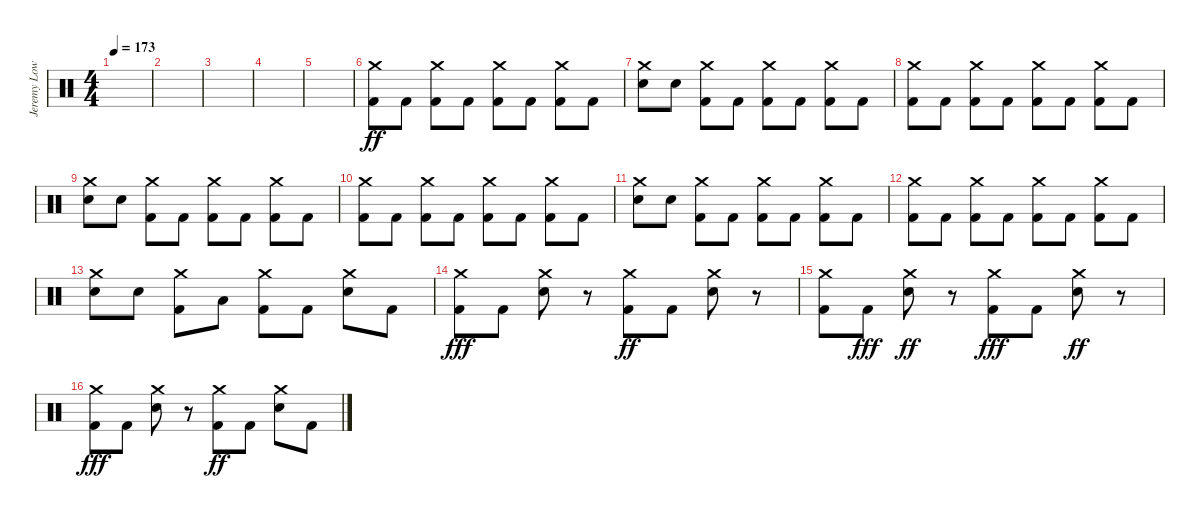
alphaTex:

\track ("Jeremy Lowery" "Jeremy Low") {instrument percussion}
\staff {score}
\articulation defaults
\ts (4 4)
\tempo 173
\clef neutral
\ks c
|
|
|
|
|
("Crash medium (hit)" "Kick (hit) 2").8{dy ff} "Kick (hit) 2".8 ("Crash medium (hit)" "Kick (hit) 2").8 "Kick (hit) 2".8 ("Crash medium (hit)" "Kick (hit) 2").8 "Kick (hit) 2".8 ("Crash medium (hit)" "Kick (hit) 2").8 "Kick (hit) 2".8 |
("Crash medium (hit)" "Electric Snare (hit)").8 "Electric Snare (hit)".8 ("Crash medium (hit)" "Kick (hit) 2").8 "Kick (hit) 2".8 ("Crash medium (hit)" "Kick (hit) 2").8 "Kick (hit) 2".8 ("Crash medium (hit)" "Kick (hit) 2").8 "Kick (hit) 2".8 |
("Crash medium (hit)" "Kick (hit) 2").8 "Kick (hit) 2".8 ("Crash medium (hit)" "Kick (hit) 2").8 "Kick (hit) 2".8 ("Crash medium (hit)" "Kick (hit) 2").8 "Kick (hit) 2".8 ("Crash medium (hit)" "Kick (hit) 2").8 "Kick (hit) 2".8 |
("Crash medium (hit)" "Electric Snare (hit)").8 "Electric Snare (hit)".8 ("Crash medium (hit)" "Kick (hit) 2").8 "Kick (hit) 2".8 ("Crash medium (hit)" "Kick (hit) 2").8 "Kick (hit) 2".8 ("Crash medium (hit)" "Kick (hit) 2").8 "Kick (hit) 2".8 |
("Crash medium (hit)" "Kick (hit) 2").8 "Kick (hit) 2".8 ("Crash medium (hit)" "Kick (hit) 2").8 "Kick (hit) 2".8 ("Crash medium (hit)" "Kick (hit) 2").8 "Kick (hit) 2".8 ("Crash medium (hit)" "Kick (hit) 2").8 "Kick (hit) 2".8 |
("Crash medium (hit)" "Electric Snare (hit)").8 "Electric Snare (hit)".8 ("Crash medium (hit)" "Kick (hit) 2").8 "Kick (hit) 2".8 ("Crash medium (hit)" "Kick (hit) 2").8 "Kick (hit) 2".8 ("Crash medium (hit)" "Kick (hit) 2").8 "Kick (hit) 2".8 |
("Crash medium (hit)" "Kick (hit) 2").8 "Kick (hit) 2".8 ("Crash medium (hit)" "Kick (hit) 2").8 "Kick (hit) 2".8 ("Crash medium (hit)" "Kick (hit) 2").8 "Kick (hit) 2".8 ("Crash medium (hit)" "Kick (hit) 2").8 "Kick (hit) 2".8 |
("Crash medium (hit)" "Electric Snare (hit)").8 "Electric Snare (hit)".8 ("Crash medium (hit)" "Kick (hit) 2").8 "Low Floor Tom (hit)".8 ("Crash medium (hit)" "Kick (hit) 2").8 "Kick (hit) 2".8 ("Crash medium (hit)" "Electric Snare (hit)").8 "Kick (hit) 2".8 |
("Crash medium (hit)" "Kick (hit) 2").8{dy fff} "Kick (hit) 2".8 ("Crash medium (hit)" "Electric Snare (hit)").8 r.8 ("Crash medium (hit)" "Kick (hit) 2").8{dy ff} "Kick (hit) 2".8 ("Crash medium (hit)" "Electric Snare (hit)").8 r.8 |
("Crash medium (hit)" "Kick (hit) 2").8 "Kick (hit) 2".8{dy fff} ("Crash medium (hit)" "Electric Snare (hit)").8{dy ff} r.8 ("Crash medium (hit)" "Kick (hit) 2").8{dy fff} "Kick (hit) 2".8 ("Crash medium (hit)" "Electric Snare (hit)").8{dy ff} r.8 |
("Crash medium (hit)" "Kick (hit) 2").8{dy fff} "Kick (hit) 2".8 ("Crash medium (hit)" "Electric Snare (hit)").8 r.8 ("Crash medium (hit)" "Kick (hit) 2").8{dy ff} "Kick (hit) 2".8 ("Crash medium (hit)" "Electric Snare (hit)").8 "Kick (hit) 2".8
